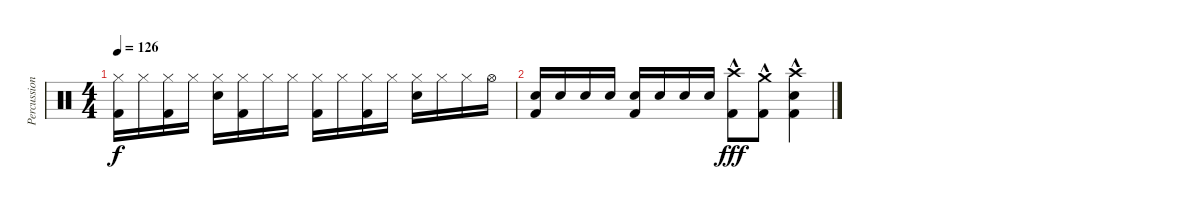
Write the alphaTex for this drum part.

\track ("Percussion" "Percussion") {instrument percussion}
\staff {score}
\articulation defaults
\ts (4 4)
\tempo 126
\clef neutral
\ks c
("Hi-Hat (closed)" "Kick (hit) 2").16{dy f} "Hi-Hat (closed)".16 ("Hi-Hat (closed)" "Kick (hit) 2").16 "Hi-Hat (closed)".16 ("Hi-Hat (closed)" "Electric Snare (hit)").16 ("Hi-Hat (closed)" "Kick (hit) 2").16 "Hi-Hat (closed)".16 "Hi-Hat (closed)".16 ("Hi-Hat (closed)" "Kick (hit) 2").16 "Hi-Hat (closed)".16 ("Hi-Hat (closed)" "Kick (hit) 2").16 "Hi-Hat (closed)".16 ("Hi-Hat (closed)" "Electric Snare (hit)").16 "Hi-Hat (closed)".16 "Hi-Hat (closed)".16 "Hi-Hat (open)".16 |
("Electric Snare (hit)" "Kick (hit) 2").16 "Electric Snare (hit)".16 "Electric Snare (hit)".16 "Electric Snare (hit)".16 ("Electric Snare (hit)" "Kick (hit) 2").16 "Electric Snare (hit)".16 "Electric Snare (hit)".16 "Electric Snare (hit)".16 ("Crash high (hit)"{hac} "Kick (hit) 2").8{dy fff} ("Crash medium (hit)"{hac} "Kick (hit) 2").8 ("Crash high (hit)"{hac} "Electric Snare (hit)" "Kick (hit) 2").4
